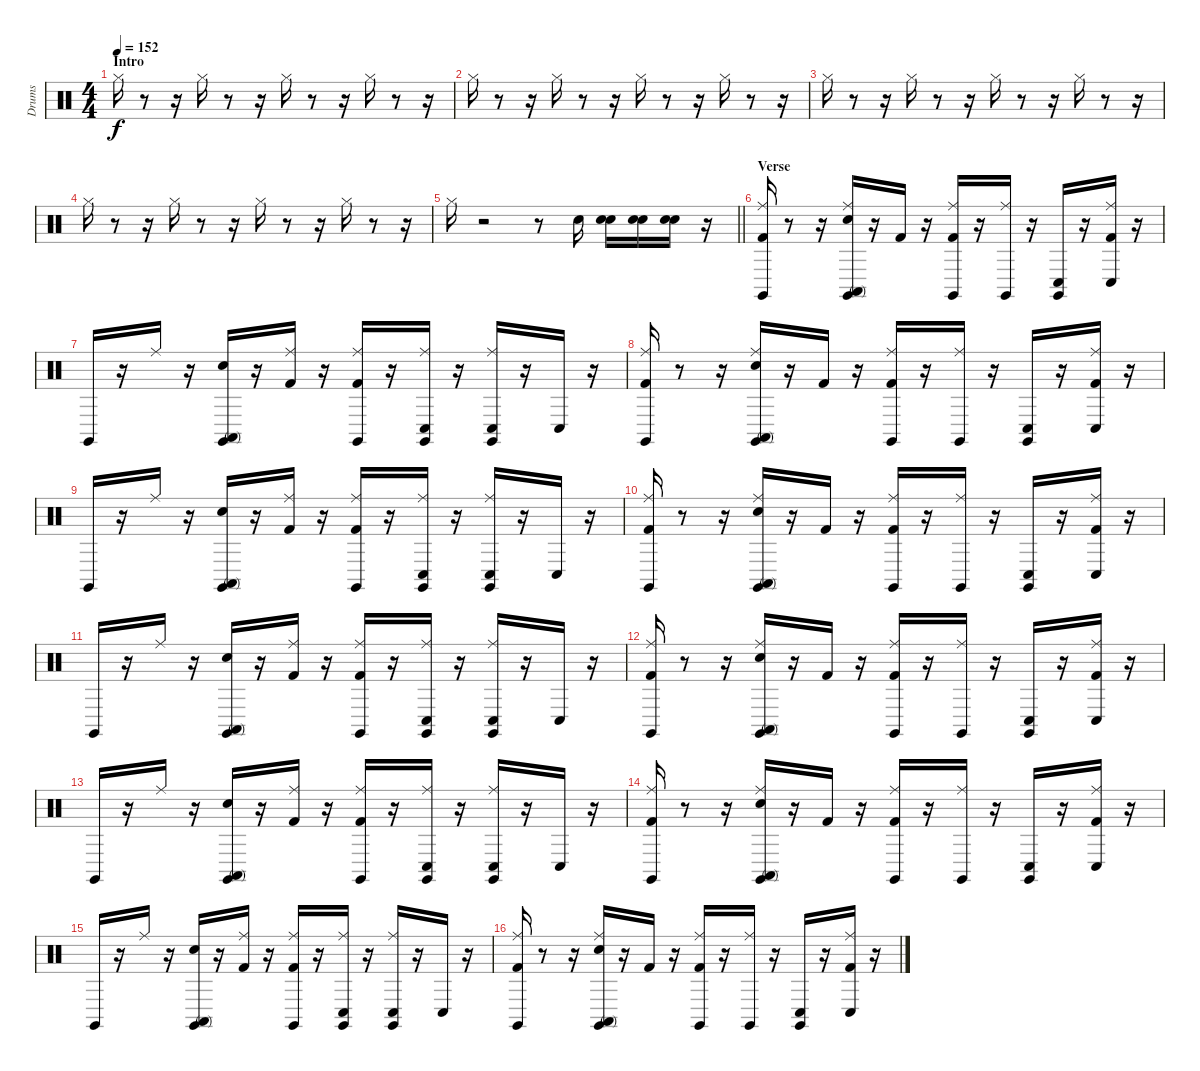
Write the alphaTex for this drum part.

\track ("Drums" "Drums") {instrument percussion}
\staff {score}
\articulation defaults
\ts (4 4)
\section ("" "Intro")
\tempo 152
\clef neutral
\ks c "Hi-Hat (closed)".16{dy f}
r.8 r.16 "Hi-Hat (closed)".16 r.8 r.16 "Hi-Hat (closed)".16 r.8 r.16 "Hi-Hat (closed)".16 r.8 r.16 |
"Hi-Hat (closed)".16 r.8 r.16 "Hi-Hat (closed)".16 r.8 r.16 "Hi-Hat (closed)".16 r.8 r.16 "Hi-Hat (closed)".16 r.8 r.16 |
"Hi-Hat (closed)".16 r.8 r.16 "Hi-Hat (closed)".16 r.8 r.16 "Hi-Hat (closed)".16 r.8 r.16 "Hi-Hat (closed)".16 r.8 r.16 |
"Hi-Hat (closed)".16 r.8 r.16 "Hi-Hat (closed)".16 r.8 r.16 "Hi-Hat (closed)".16 r.8 r.16 "Hi-Hat (closed)".16 r.8 r.16 |
\barLineRight lightlight "Hi-Hat (closed)".16
r.2 r.8 "Snare (hit) 2".16 ("Snare (hit)" "Snare (hit) 2").16 ("Snare (hit)" "Snare (hit) 2").16 ("Snare (hit)" "Snare (hit) 2").16 r.16 |
\section ("" "Verse")
("Kick (hit) 2" "Ride (middle)" "Claves (hit)").16 r.8 r.16 ("Snare (hit) 2" "Ride (middle)" "Conga high (mute)" "Claves (hit)").16 r.16 "Kick (hit) 2".16 r.16 ("Kick (hit) 2" "Ride (middle)" "Claves (hit)").16 r.16 ("Ride (middle)" "Claves (hit)").16 r.16 ("Conga low (hit)" "Claves (hit)").16 r.16 ("Kick (hit) 2" "Ride (middle)" "Conga low (hit)").16 r.16 |
"Claves (hit)".16 r.16 "Ride (middle)".16 r.16 ("Snare (hit) 2" "Conga high (mute)" "Claves (hit)").16 r.16 ("Kick (hit) 2" "Ride (middle)").16 r.16 ("Kick (hit) 2" "Ride (middle)" "Claves (hit)").16 r.16 ("Ride (middle)" "Conga low (hit)" "Claves (hit)").16 r.16 ("Ride (middle)" "Conga low (hit)" "Claves (hit)").16 r.16 "Conga low (hit)".16 r.16 |
("Kick (hit) 2" "Ride (middle)" "Claves (hit)").16 r.8 r.16 ("Snare (hit) 2" "Ride (middle)" "Conga high (mute)" "Claves (hit)").16 r.16 "Kick (hit) 2".16 r.16 ("Kick (hit) 2" "Ride (middle)" "Claves (hit)").16 r.16 ("Ride (middle)" "Claves (hit)").16 r.16 ("Conga low (hit)" "Claves (hit)").16 r.16 ("Kick (hit) 2" "Ride (middle)" "Conga low (hit)").16 r.16 |
"Claves (hit)".16 r.16 "Ride (middle)".16 r.16 ("Snare (hit) 2" "Conga high (mute)" "Claves (hit)").16 r.16 ("Kick (hit) 2" "Ride (middle)").16 r.16 ("Kick (hit) 2" "Ride (middle)" "Claves (hit)").16 r.16 ("Ride (middle)" "Conga low (hit)" "Claves (hit)").16 r.16 ("Ride (middle)" "Conga low (hit)" "Claves (hit)").16 r.16 "Conga low (hit)".16 r.16 |
("Kick (hit) 2" "Ride (middle)" "Claves (hit)").16 r.8 r.16 ("Snare (hit) 2" "Ride (middle)" "Conga high (mute)" "Claves (hit)").16 r.16 "Kick (hit) 2".16 r.16 ("Kick (hit) 2" "Ride (middle)" "Claves (hit)").16 r.16 ("Ride (middle)" "Claves (hit)").16 r.16 ("Conga low (hit)" "Claves (hit)").16 r.16 ("Kick (hit) 2" "Ride (middle)" "Conga low (hit)").16 r.16 |
"Claves (hit)".16 r.16 "Ride (middle)".16 r.16 ("Snare (hit) 2" "Conga high (mute)" "Claves (hit)").16 r.16 ("Kick (hit) 2" "Ride (middle)").16 r.16 ("Kick (hit) 2" "Ride (middle)" "Claves (hit)").16 r.16 ("Ride (middle)" "Conga low (hit)" "Claves (hit)").16 r.16 ("Ride (middle)" "Conga low (hit)" "Claves (hit)").16 r.16 "Conga low (hit)".16 r.16 |
("Kick (hit) 2" "Ride (middle)" "Claves (hit)").16 r.8 r.16 ("Snare (hit) 2" "Ride (middle)" "Conga high (mute)" "Claves (hit)").16 r.16 "Kick (hit) 2".16 r.16 ("Kick (hit) 2" "Ride (middle)" "Claves (hit)").16 r.16 ("Ride (middle)" "Claves (hit)").16 r.16 ("Conga low (hit)" "Claves (hit)").16 r.16 ("Kick (hit) 2" "Ride (middle)" "Conga low (hit)").16 r.16 |
"Claves (hit)".16 r.16 "Ride (middle)".16 r.16 ("Snare (hit) 2" "Conga high (mute)" "Claves (hit)").16 r.16 ("Kick (hit) 2" "Ride (middle)").16 r.16 ("Kick (hit) 2" "Ride (middle)" "Claves (hit)").16 r.16 ("Ride (middle)" "Conga low (hit)" "Claves (hit)").16 r.16 ("Ride (middle)" "Conga low (hit)" "Claves (hit)").16 r.16 "Conga low (hit)".16 r.16 |
("Kick (hit) 2" "Ride (middle)" "Claves (hit)").16 r.8 r.16 ("Snare (hit) 2" "Ride (middle)" "Conga high (mute)" "Claves (hit)").16 r.16 "Kick (hit) 2".16 r.16 ("Kick (hit) 2" "Ride (middle)" "Claves (hit)").16 r.16 ("Ride (middle)" "Claves (hit)").16 r.16 ("Conga low (hit)" "Claves (hit)").16 r.16 ("Kick (hit) 2" "Ride (middle)" "Conga low (hit)").16 r.16 |
"Claves (hit)".16 r.16 "Ride (middle)".16 r.16 ("Snare (hit) 2" "Conga high (mute)" "Claves (hit)").16 r.16 ("Kick (hit) 2" "Ride (middle)").16 r.16 ("Kick (hit) 2" "Ride (middle)" "Claves (hit)").16 r.16 ("Ride (middle)" "Conga low (hit)" "Claves (hit)").16 r.16 ("Ride (middle)" "Conga low (hit)" "Claves (hit)").16 r.16 "Conga low (hit)".16 r.16 |
("Kick (hit) 2" "Ride (middle)" "Claves (hit)").16 r.8 r.16 ("Snare (hit) 2" "Ride (middle)" "Conga high (mute)" "Claves (hit)").16 r.16 "Kick (hit) 2".16 r.16 ("Kick (hit) 2" "Ride (middle)" "Claves (hit)").16 r.16 ("Ride (middle)" "Claves (hit)").16 r.16 ("Conga low (hit)" "Claves (hit)").16 r.16 ("Kick (hit) 2" "Ride (middle)" "Conga low (hit)").16 r.16
